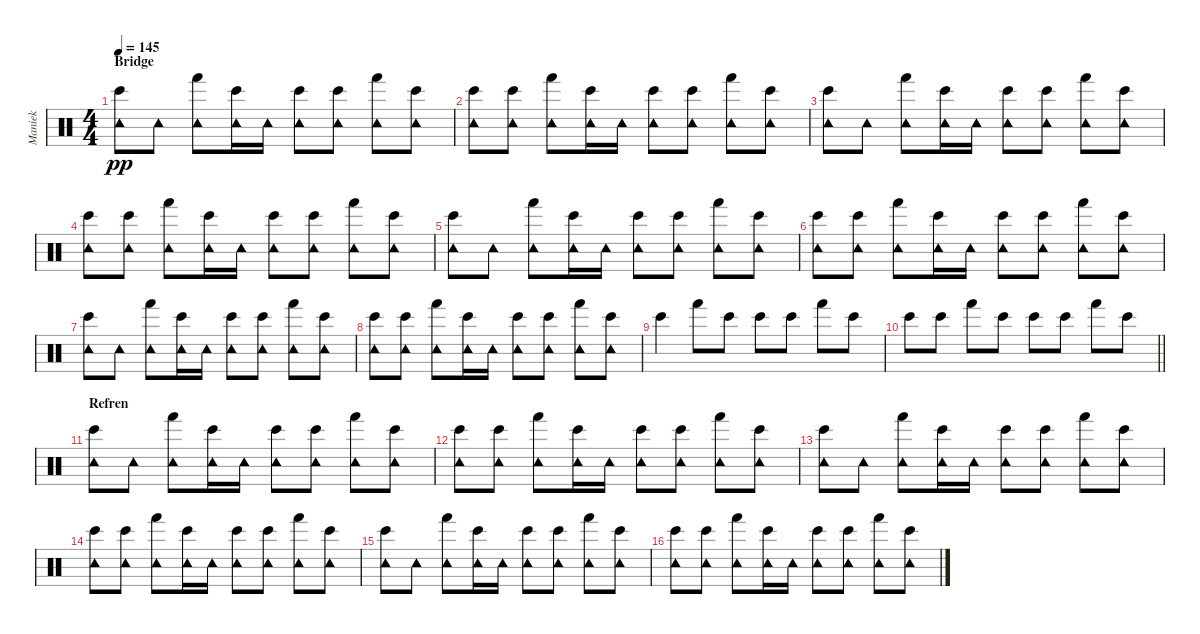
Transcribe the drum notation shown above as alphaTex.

\track ("Maniek" "Maniek") {instrument percussion}
\staff {score}
\articulation defaults
\ts (4 4)
\section ("" "Bridge")
\tempo 145
\clef neutral
\ks c
("Bongo High (hit)" "Tambourine (hit)").8{dy pp} "Tambourine (hit)".8 ("Hand (hit)" "Tambourine (hit)").8 ("Bongo High (hit)" "Tambourine (hit)").16 "Tambourine (hit)".16 ("Bongo High (hit)" "Tambourine (hit)").8 ("Bongo High (hit)" "Tambourine (hit)").8 ("Hand (hit)" "Tambourine (hit)").8 ("Bongo High (hit)" "Tambourine (hit)").8 |
("Bongo High (hit)" "Tambourine (hit)").8 ("Bongo High (hit)" "Tambourine (hit)").8 ("Hand (hit)" "Tambourine (hit)").8 ("Bongo High (hit)" "Tambourine (hit)").16 "Tambourine (hit)".16 ("Bongo High (hit)" "Tambourine (hit)").8 ("Bongo High (hit)" "Tambourine (hit)").8 ("Hand (hit)" "Tambourine (hit)").8 ("Bongo High (hit)" "Tambourine (hit)").8 |
("Bongo High (hit)" "Tambourine (hit)").8 "Tambourine (hit)".8 ("Hand (hit)" "Tambourine (hit)").8 ("Bongo High (hit)" "Tambourine (hit)").16 "Tambourine (hit)".16 ("Bongo High (hit)" "Tambourine (hit)").8 ("Bongo High (hit)" "Tambourine (hit)").8 ("Hand (hit)" "Tambourine (hit)").8 ("Bongo High (hit)" "Tambourine (hit)").8 |
("Bongo High (hit)" "Tambourine (hit)").8 ("Bongo High (hit)" "Tambourine (hit)").8 ("Hand (hit)" "Tambourine (hit)").8 ("Bongo High (hit)" "Tambourine (hit)").16 "Tambourine (hit)".16 ("Bongo High (hit)" "Tambourine (hit)").8 ("Bongo High (hit)" "Tambourine (hit)").8 ("Hand (hit)" "Tambourine (hit)").8 ("Bongo High (hit)" "Tambourine (hit)").8 |
("Bongo High (hit)" "Tambourine (hit)").8 "Tambourine (hit)".8 ("Hand (hit)" "Tambourine (hit)").8 ("Bongo High (hit)" "Tambourine (hit)").16 "Tambourine (hit)".16 ("Bongo High (hit)" "Tambourine (hit)").8 ("Bongo High (hit)" "Tambourine (hit)").8 ("Hand (hit)" "Tambourine (hit)").8 ("Bongo High (hit)" "Tambourine (hit)").8 |
("Bongo High (hit)" "Tambourine (hit)").8 ("Bongo High (hit)" "Tambourine (hit)").8 ("Hand (hit)" "Tambourine (hit)").8 ("Bongo High (hit)" "Tambourine (hit)").16 "Tambourine (hit)".16 ("Bongo High (hit)" "Tambourine (hit)").8 ("Bongo High (hit)" "Tambourine (hit)").8 ("Hand (hit)" "Tambourine (hit)").8 ("Bongo High (hit)" "Tambourine (hit)").8 |
("Bongo High (hit)" "Tambourine (hit)").8 "Tambourine (hit)".8 ("Hand (hit)" "Tambourine (hit)").8 ("Bongo High (hit)" "Tambourine (hit)").16 "Tambourine (hit)".16 ("Bongo High (hit)" "Tambourine (hit)").8 ("Bongo High (hit)" "Tambourine (hit)").8 ("Hand (hit)" "Tambourine (hit)").8 ("Bongo High (hit)" "Tambourine (hit)").8 |
("Bongo High (hit)" "Tambourine (hit)").8 ("Bongo High (hit)" "Tambourine (hit)").8 ("Hand (hit)" "Tambourine (hit)").8 ("Bongo High (hit)" "Tambourine (hit)").16 "Tambourine (hit)".16 ("Bongo High (hit)" "Tambourine (hit)").8 ("Bongo High (hit)" "Tambourine (hit)").8 ("Hand (hit)" "Tambourine (hit)").8 ("Bongo High (hit)" "Tambourine (hit)").8 |
"Bongo High (hit)".4 "Hand (hit)".8 "Bongo High (hit)".8 "Bongo High (hit)".8 "Bongo High (hit)".8 "Hand (hit)".8 "Bongo High (hit)".8 |
\barLineRight lightlight "Bongo High (hit)".8 "Bongo High (hit)".8 "Hand (hit)".8 "Bongo High (hit)".8 "Bongo High (hit)".8 "Bongo High (hit)".8 "Hand (hit)".8 "Bongo High (hit)".8
|
\section ("" "Refren")
("Bongo High (hit)" "Tambourine (hit)").8 "Tambourine (hit)".8 ("Hand (hit)" "Tambourine (hit)").8 ("Bongo High (hit)" "Tambourine (hit)").16 "Tambourine (hit)".16 ("Bongo High (hit)" "Tambourine (hit)").8 ("Bongo High (hit)" "Tambourine (hit)").8 ("Hand (hit)" "Tambourine (hit)").8 ("Bongo High (hit)" "Tambourine (hit)").8 |
("Bongo High (hit)" "Tambourine (hit)").8 ("Bongo High (hit)" "Tambourine (hit)").8 ("Hand (hit)" "Tambourine (hit)").8 ("Bongo High (hit)" "Tambourine (hit)").16 "Tambourine (hit)".16 ("Bongo High (hit)" "Tambourine (hit)").8 ("Bongo High (hit)" "Tambourine (hit)").8 ("Hand (hit)" "Tambourine (hit)").8 ("Bongo High (hit)" "Tambourine (hit)").8 |
("Bongo High (hit)" "Tambourine (hit)").8 "Tambourine (hit)".8 ("Hand (hit)" "Tambourine (hit)").8 ("Bongo High (hit)" "Tambourine (hit)").16 "Tambourine (hit)".16 ("Bongo High (hit)" "Tambourine (hit)").8 ("Bongo High (hit)" "Tambourine (hit)").8 ("Hand (hit)" "Tambourine (hit)").8 ("Bongo High (hit)" "Tambourine (hit)").8 |
("Bongo High (hit)" "Tambourine (hit)").8 ("Bongo High (hit)" "Tambourine (hit)").8 ("Hand (hit)" "Tambourine (hit)").8 ("Bongo High (hit)" "Tambourine (hit)").16 "Tambourine (hit)".16 ("Bongo High (hit)" "Tambourine (hit)").8 ("Bongo High (hit)" "Tambourine (hit)").8 ("Hand (hit)" "Tambourine (hit)").8 ("Bongo High (hit)" "Tambourine (hit)").8 |
("Bongo High (hit)" "Tambourine (hit)").8 "Tambourine (hit)".8 ("Hand (hit)" "Tambourine (hit)").8 ("Bongo High (hit)" "Tambourine (hit)").16 "Tambourine (hit)".16 ("Bongo High (hit)" "Tambourine (hit)").8 ("Bongo High (hit)" "Tambourine (hit)").8 ("Hand (hit)" "Tambourine (hit)").8 ("Bongo High (hit)" "Tambourine (hit)").8 |
("Bongo High (hit)" "Tambourine (hit)").8 ("Bongo High (hit)" "Tambourine (hit)").8 ("Hand (hit)" "Tambourine (hit)").8 ("Bongo High (hit)" "Tambourine (hit)").16 "Tambourine (hit)".16 ("Bongo High (hit)" "Tambourine (hit)").8 ("Bongo High (hit)" "Tambourine (hit)").8 ("Hand (hit)" "Tambourine (hit)").8 ("Bongo High (hit)" "Tambourine (hit)").8
